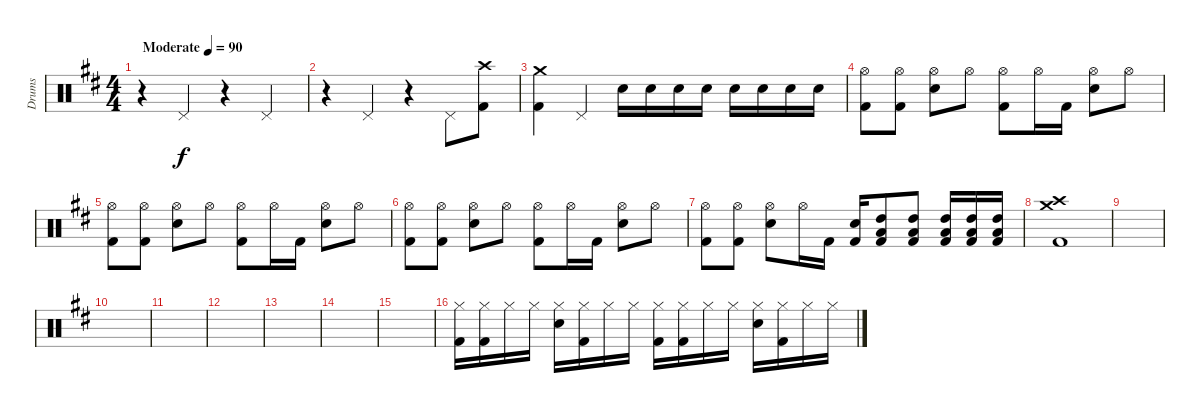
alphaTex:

\track ("Drums" "Drums") {instrument percussion}
\staff {score}
\articulation defaults
\ts (4 4)
\tempo (90 "Moderate")
\clef neutral
\ks bminor
r.4{dy f} "Pedal Hi-Hat (hit)".4 r.4 "Pedal Hi-Hat (hit)".4 |
r.4 "Pedal Hi-Hat (hit)".4 r.4 "Pedal Hi-Hat (hit)".8 ("Crash high (hit)" "Kick (hit) 2").8 |
("Crash medium (hit)" "Kick (hit) 2").4 "Pedal Hi-Hat (hit)".4 "Snare (hit) 2".16 "Snare (hit) 2".16 "Snare (hit) 2".16 "Snare (hit) 2".16 "Snare (hit) 2".16 "Snare (hit) 2".16 "Snare (hit) 2".16 "Snare (hit) 2".16 |
("Hi-Hat (open)" "Kick (hit) 2").8 ("Hi-Hat (open)" "Kick (hit) 2").8 ("Hi-Hat (open)" "Snare (hit) 2").8 "Hi-Hat (open)".8 ("Hi-Hat (open)" "Kick (hit) 2").8 "Hi-Hat (open)".16 "Kick (hit) 2".16 ("Hi-Hat (open)" "Snare (hit) 2").8 "Hi-Hat (open)".8 |
("Hi-Hat (open)" "Kick (hit) 2").8 ("Hi-Hat (open)" "Kick (hit) 2").8 ("Hi-Hat (open)" "Snare (hit) 2").8 "Hi-Hat (open)".8 ("Hi-Hat (open)" "Kick (hit) 2").8 "Hi-Hat (open)".16 "Kick (hit) 2".16 ("Hi-Hat (open)" "Snare (hit) 2").8 "Hi-Hat (open)".8 |
("Hi-Hat (open)" "Kick (hit) 2").8 ("Hi-Hat (open)" "Kick (hit) 2").8 ("Hi-Hat (open)" "Snare (hit) 2").8 "Hi-Hat (open)".8 ("Hi-Hat (open)" "Kick (hit) 2").8 "Hi-Hat (open)".16 "Kick (hit) 2".16 ("Hi-Hat (open)" "Snare (hit) 2").8 "Hi-Hat (open)".8 |
("Hi-Hat (open)" "Kick (hit) 2").8 ("Hi-Hat (open)" "Kick (hit) 2").8 ("Hi-Hat (open)" "Snare (hit) 2").8 "Hi-Hat (open)".16 "Kick (hit) 2".16 ("Snare (hit) 2" "Kick (hit) 2").16 ("High Tom (hit)" "Low Tom (hit)" "Kick (hit) 2").8 ("High Tom (hit)" "Low Tom (hit)" "Kick (hit) 2").8 ("High Tom (hit)" "Low Tom (hit)" "Kick (hit) 2").16 ("High Tom (hit)" "Low Tom (hit)" "Kick (hit) 2").16 ("High Tom (hit)" "Low Tom (hit)" "Kick (hit) 2").16 |
("Crash high (hit)" "Crash medium (hit)" "Kick (hit) 2").1{volume 3} |
|
|
|
|
|
|
|
("Hi-Hat (closed)" "Kick (hit) 2").16 ("Hi-Hat (closed)" "Kick (hit) 2").16 "Hi-Hat (closed)".16 "Hi-Hat (closed)".16 ("Hi-Hat (closed)" "Snare (hit) 2").16 ("Hi-Hat (closed)" "Kick (hit) 2").16 "Hi-Hat (closed)".16 "Hi-Hat (closed)".16 ("Hi-Hat (closed)" "Kick (hit) 2").16 ("Hi-Hat (closed)" "Kick (hit) 2").16 "Hi-Hat (closed)".16 "Hi-Hat (closed)".16 ("Hi-Hat (closed)" "Snare (hit) 2").16 ("Hi-Hat (closed)" "Kick (hit) 2").16 "Hi-Hat (closed)".16 "Hi-Hat (closed)".16
